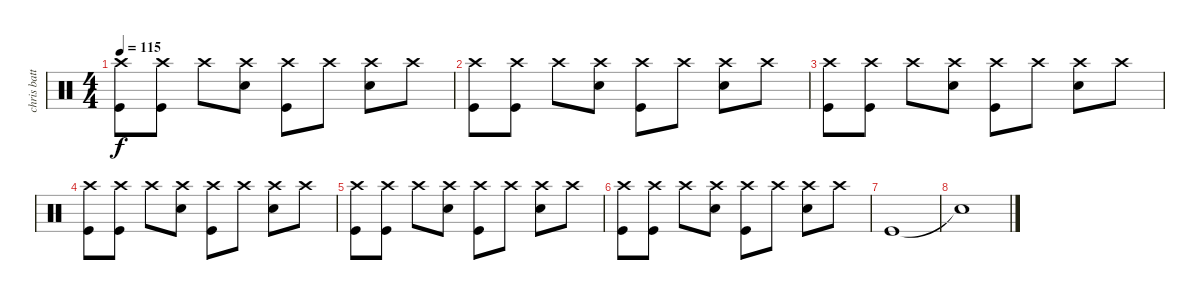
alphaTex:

\track ("chris batterie" "chris batt") {instrument percussion}
\staff {score}
\articulation defaults
\ts (4 4)
\tempo 115
\clef neutral
\ks c
("Crash high (hit)" "Kick (hit)").8{dy f} ("Crash high (hit)" "Kick (hit)").8 "Crash high (hit)".8 ("Crash high (hit)" "Snare (hit) 2").8 ("Crash high (hit)" "Kick (hit)").8 "Crash high (hit)".8 ("Crash high (hit)" "Snare (hit) 2").8 "Crash high (hit)".8 |
("Crash high (hit)" "Kick (hit)").8 ("Crash high (hit)" "Kick (hit)").8 "Crash high (hit)".8 ("Crash high (hit)" "Snare (hit) 2").8 ("Crash high (hit)" "Kick (hit)").8 "Crash high (hit)".8 ("Crash high (hit)" "Snare (hit) 2").8 "Crash high (hit)".8 |
("Crash high (hit)" "Kick (hit)").8 ("Crash high (hit)" "Kick (hit)").8 "Crash high (hit)".8 ("Crash high (hit)" "Snare (hit) 2").8 ("Crash high (hit)" "Kick (hit)").8 "Crash high (hit)".8 ("Crash high (hit)" "Snare (hit) 2").8 "Crash high (hit)".8 |
("Crash high (hit)" "Kick (hit)").8 ("Crash high (hit)" "Kick (hit)").8 "Crash high (hit)".8 ("Crash high (hit)" "Snare (hit) 2").8 ("Crash high (hit)" "Kick (hit)").8 "Crash high (hit)".8 ("Crash high (hit)" "Snare (hit) 2").8 "Crash high (hit)".8 |
("Crash high (hit)" "Kick (hit)").8 ("Crash high (hit)" "Kick (hit)").8 "Crash high (hit)".8 ("Crash high (hit)" "Snare (hit) 2").8 ("Crash high (hit)" "Kick (hit)").8 "Crash high (hit)".8 ("Crash high (hit)" "Snare (hit) 2").8 "Crash high (hit)".8 |
("Crash high (hit)" "Kick (hit)").8 ("Crash high (hit)" "Kick (hit)").8 "Crash high (hit)".8 ("Crash high (hit)" "Snare (hit) 2").8 ("Crash high (hit)" "Kick (hit)").8 "Crash high (hit)".8 ("Crash high (hit)" "Snare (hit) 2").8 "Crash high (hit)".8 |
"Kick (hit)".1 |
"Snare (hit)"{t}.1
